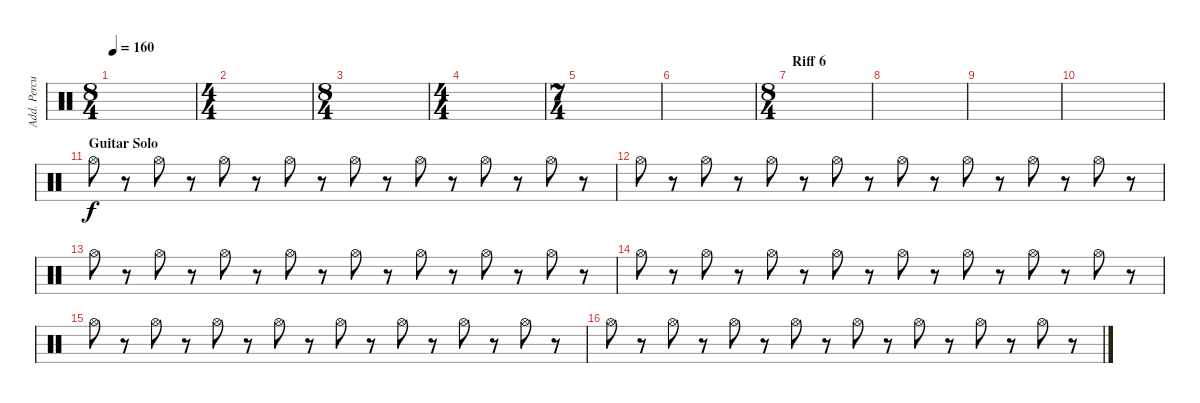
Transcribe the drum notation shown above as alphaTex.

\track ("Add. Percussion" "Add. Percu") {instrument percussion}
\staff {score}
\articulation defaults
\ts (8 4)
\tempo 160
\clef neutral
\ks c
|
\ts (4 4)
|
\ts (8 4)
|
\ts (4 4)
|
\ts (7 4)
|
|
\ts (8 4)
\section ("" "Riff 6")
|
|
|
|
\section ("" "Guitar Solo")
"Hi-Hat (open)".8 r.8 "Hi-Hat (open)".8 r.8 "Hi-Hat (open)".8 r.8 "Hi-Hat (open)".8 r.8 "Hi-Hat (open)".8 r.8 "Hi-Hat (open)".8 r.8 "Hi-Hat (open)".8 r.8 "Hi-Hat (open)".8 r.8 |
"Hi-Hat (open)".8 r.8 "Hi-Hat (open)".8 r.8 "Hi-Hat (open)".8 r.8 "Hi-Hat (open)".8 r.8 "Hi-Hat (open)".8 r.8 "Hi-Hat (open)".8 r.8 "Hi-Hat (open)".8 r.8 "Hi-Hat (open)".8 r.8 |
"Hi-Hat (open)".8 r.8 "Hi-Hat (open)".8 r.8 "Hi-Hat (open)".8 r.8 "Hi-Hat (open)".8 r.8 "Hi-Hat (open)".8 r.8 "Hi-Hat (open)".8 r.8 "Hi-Hat (open)".8 r.8 "Hi-Hat (open)".8 r.8 |
"Hi-Hat (open)".8 r.8 "Hi-Hat (open)".8 r.8 "Hi-Hat (open)".8 r.8 "Hi-Hat (open)".8 r.8 "Hi-Hat (open)".8 r.8 "Hi-Hat (open)".8 r.8 "Hi-Hat (open)".8 r.8 "Hi-Hat (open)".8 r.8 |
"Hi-Hat (open)".8 r.8 "Hi-Hat (open)".8 r.8 "Hi-Hat (open)".8 r.8 "Hi-Hat (open)".8 r.8 "Hi-Hat (open)".8 r.8 "Hi-Hat (open)".8 r.8 "Hi-Hat (open)".8 r.8 "Hi-Hat (open)".8 r.8 |
"Hi-Hat (open)".8 r.8 "Hi-Hat (open)".8 r.8 "Hi-Hat (open)".8 r.8 "Hi-Hat (open)".8 r.8 "Hi-Hat (open)".8 r.8 "Hi-Hat (open)".8 r.8 "Hi-Hat (open)".8 r.8 "Hi-Hat (open)".8 r.8
